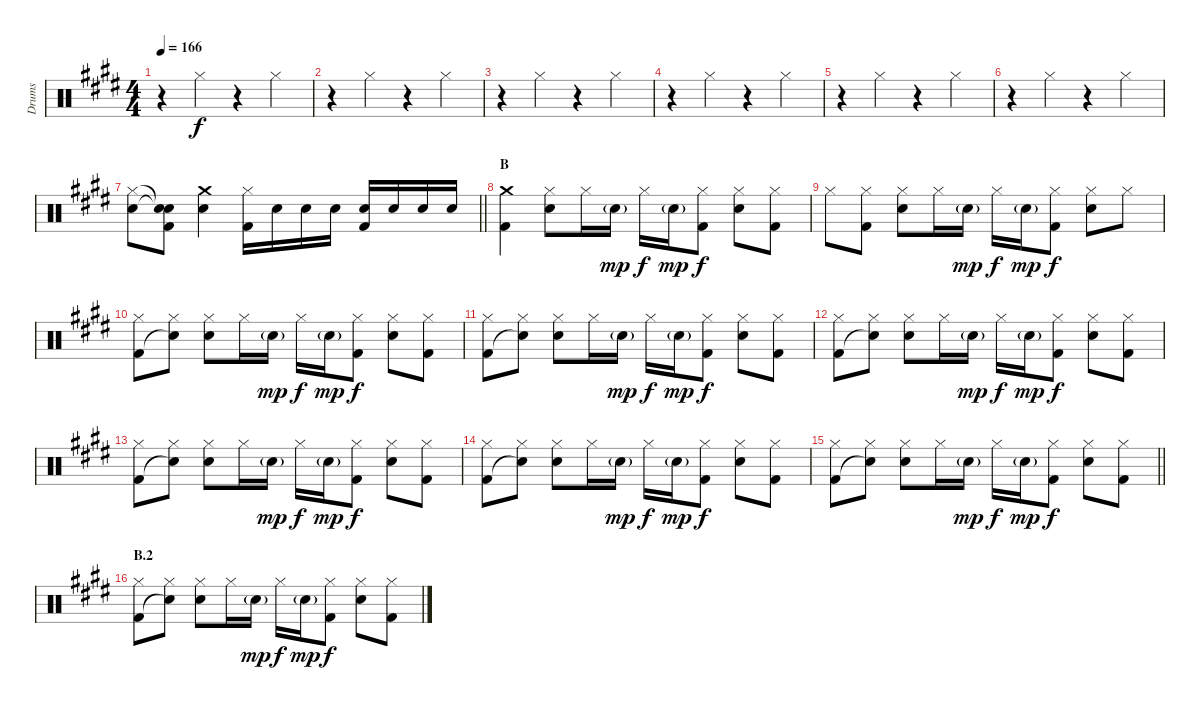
\track ("Drums" "Drums") {instrument percussion}
\staff {score}
\articulation defaults
\ts (4 4)
\tempo 166
\clef neutral
\ks e
r.4{dy f} "Hi-Hat (closed)".4 r.4 "Hi-Hat (closed)".4 |
r.4 "Hi-Hat (closed)".4 r.4 "Hi-Hat (closed)".4 |
r.4 "Hi-Hat (closed)".4 r.4 "Hi-Hat (closed)".4 |
r.4 "Hi-Hat (closed)".4 r.4 "Hi-Hat (closed)".4 |
r.4 "Hi-Hat (closed)".4 r.4 "Hi-Hat (closed)".4 |
r.4 "Hi-Hat (closed)".4 r.4 "Hi-Hat (closed)".4 |
\barLineRight lightlight
("Hi-Hat (closed)" "Snare (hit) 2").8 ("Snare (hit)"{t} "Snare (hit)"{t} "Kick (hit) 2").8 ("Crash medium (hit)" "Snare (hit) 2").4 ("Hi-Hat (closed)" "Kick (hit) 2").16 "Snare (hit) 2".16 "Snare (hit) 2".16 "Snare (hit) 2".16 ("Snare (hit) 2" "Kick (hit) 2").16 "Snare (hit) 2".16 "Snare (hit) 2".16 "Snare (hit) 2".16 |
\section ("" "B")
("Crash medium (hit)" "Kick (hit) 2").4 ("Hi-Hat (closed)" "Snare (hit) 2").8 "Hi-Hat (closed)".16 "Snare (hit) 2"{g}.16{dy mp} "Hi-Hat (closed)".16{dy f} "Snare (hit) 2"{g}.16{dy mp} ("Hi-Hat (closed)" "Kick (hit) 2").8{dy f} ("Hi-Hat (closed)" "Snare (hit) 2").8 ("Hi-Hat (closed)" "Kick (hit) 2").8 |
"Hi-Hat (closed)".8 ("Hi-Hat (closed)" "Kick (hit) 2").8 ("Hi-Hat (closed)" "Snare (hit) 2").8 "Hi-Hat (closed)".16 "Snare (hit) 2"{g}.16{dy mp} "Hi-Hat (closed)".16{dy f} "Snare (hit) 2"{g}.16{dy mp} ("Hi-Hat (closed)" "Kick (hit) 2").8{dy f} ("Hi-Hat (closed)" "Snare (hit) 2").8 "Hi-Hat (closed)".8 |
("Hi-Hat (closed)" "Kick (hit) 2").8 ("Hi-Hat (closed)" "Snare (hit)"{t}).8 ("Hi-Hat (closed)" "Snare (hit) 2").8 "Hi-Hat (closed)".16 "Snare (hit) 2"{g}.16{dy mp} "Hi-Hat (closed)".16{dy f} "Snare (hit) 2"{g}.16{dy mp} ("Hi-Hat (closed)" "Kick (hit) 2").8{dy f} ("Hi-Hat (closed)" "Snare (hit) 2").8 ("Hi-Hat (closed)" "Kick (hit) 2").8 |
("Hi-Hat (closed)" "Kick (hit) 2").8 ("Hi-Hat (closed)" "Snare (hit)"{t}).8 ("Hi-Hat (closed)" "Snare (hit) 2").8 "Hi-Hat (closed)".16 "Snare (hit) 2"{g}.16{dy mp} "Hi-Hat (closed)".16{dy f} "Snare (hit) 2"{g}.16{dy mp} ("Hi-Hat (closed)" "Kick (hit) 2").8{dy f} ("Hi-Hat (closed)" "Snare (hit) 2").8 ("Hi-Hat (closed)" "Kick (hit) 2").8 |
("Hi-Hat (closed)" "Kick (hit) 2").8 ("Hi-Hat (closed)" "Snare (hit)"{t}).8 ("Hi-Hat (closed)" "Snare (hit) 2").8 "Hi-Hat (closed)".16 "Snare (hit) 2"{g}.16{dy mp} "Hi-Hat (closed)".16{dy f} "Snare (hit) 2"{g}.16{dy mp} ("Hi-Hat (closed)" "Kick (hit) 2").8{dy f} ("Hi-Hat (closed)" "Snare (hit) 2").8 ("Hi-Hat (closed)" "Kick (hit) 2").8 |
("Hi-Hat (closed)" "Kick (hit) 2").8 ("Hi-Hat (closed)" "Snare (hit)"{t}).8 ("Hi-Hat (closed)" "Snare (hit) 2").8 "Hi-Hat (closed)".16 "Snare (hit) 2"{g}.16{dy mp} "Hi-Hat (closed)".16{dy f} "Snare (hit) 2"{g}.16{dy mp} ("Hi-Hat (closed)" "Kick (hit) 2").8{dy f} ("Hi-Hat (closed)" "Snare (hit) 2").8 ("Hi-Hat (closed)" "Kick (hit) 2").8 |
("Hi-Hat (closed)" "Kick (hit) 2").8 ("Hi-Hat (closed)" "Snare (hit)"{t}).8 ("Hi-Hat (closed)" "Snare (hit) 2").8 "Hi-Hat (closed)".16 "Snare (hit) 2"{g}.16{dy mp} "Hi-Hat (closed)".16{dy f} "Snare (hit) 2"{g}.16{dy mp} ("Hi-Hat (closed)" "Kick (hit) 2").8{dy f} ("Hi-Hat (closed)" "Snare (hit) 2").8 ("Hi-Hat (closed)" "Kick (hit) 2").8 |
\barLineRight lightlight
("Hi-Hat (closed)" "Kick (hit) 2").8 ("Hi-Hat (closed)" "Snare (hit)"{t}).8 ("Hi-Hat (closed)" "Snare (hit) 2").8 "Hi-Hat (closed)".16 "Snare (hit) 2"{g}.16{dy mp} "Hi-Hat (closed)".16{dy f} "Snare (hit) 2"{g}.16{dy mp} ("Hi-Hat (closed)" "Kick (hit) 2").8{dy f} ("Hi-Hat (closed)" "Snare (hit) 2").8 ("Hi-Hat (closed)" "Kick (hit) 2").8 |
\section ("" "B.2")
("Hi-Hat (closed)" "Kick (hit) 2").8 ("Hi-Hat (closed)" "Snare (hit)"{t}).8 ("Hi-Hat (closed)" "Snare (hit) 2").8 "Hi-Hat (closed)".16 "Snare (hit) 2"{g}.16{dy mp} "Hi-Hat (closed)".16{dy f} "Snare (hit) 2"{g}.16{dy mp} ("Hi-Hat (closed)" "Kick (hit) 2").8{dy f} ("Hi-Hat (closed)" "Snare (hit) 2").8 ("Hi-Hat (closed)" "Kick (hit) 2").8
